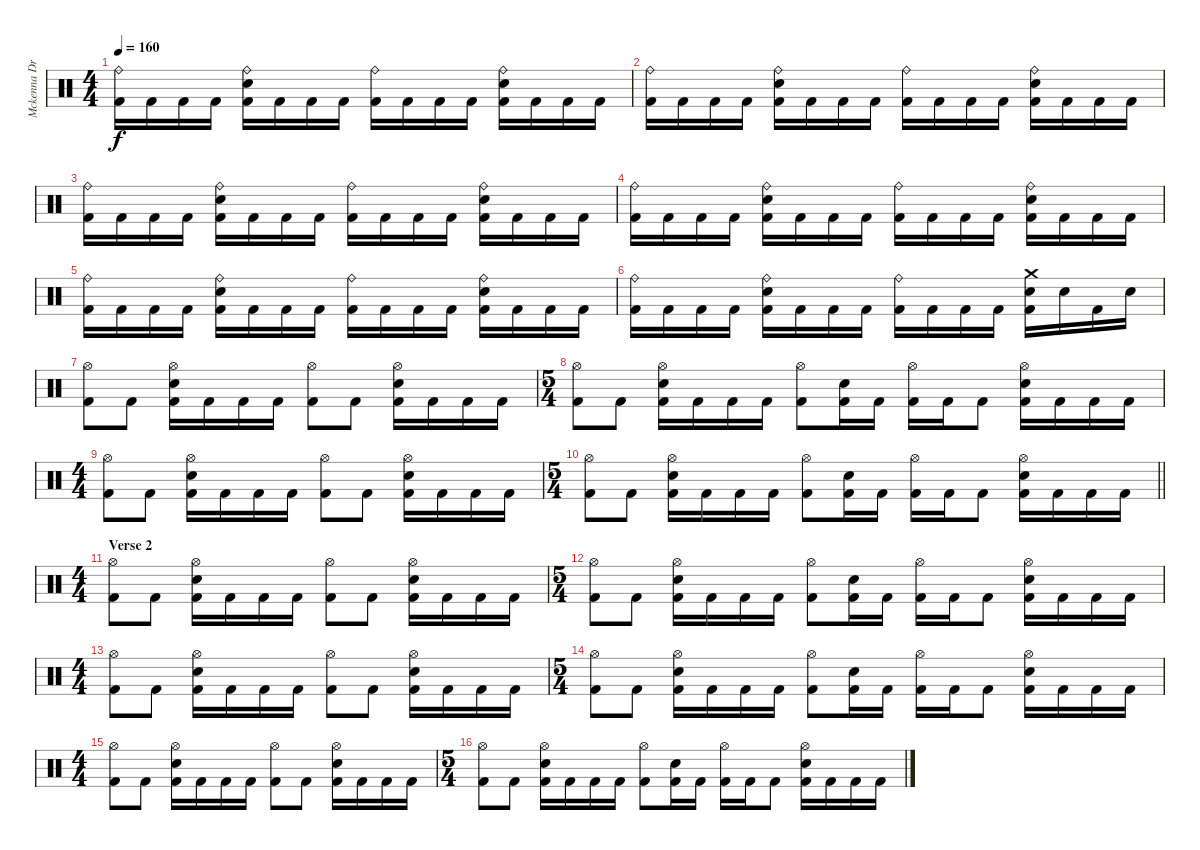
\track ("Mckenna Drums" "Mckenna Dr") {instrument percussion}
\staff {score}
\articulation defaults
\ts (4 4)
\tempo 160
\clef neutral
\ks c
("Ride (bell)" "Kick (hit) 2").16{dy f} "Kick (hit) 2".16 "Kick (hit) 2".16 "Kick (hit) 2".16 ("Ride (bell)" "Electric Snare (hit)" "Kick (hit) 2").16 "Kick (hit) 2".16 "Kick (hit) 2".16 "Kick (hit) 2".16 ("Ride (bell)" "Kick (hit) 2").16 "Kick (hit) 2".16 "Kick (hit) 2".16 "Kick (hit) 2".16 ("Ride (bell)" "Electric Snare (hit)" "Kick (hit) 2").16 "Kick (hit) 2".16 "Kick (hit) 2".16 "Kick (hit) 2".16 |
("Ride (bell)" "Kick (hit) 2").16 "Kick (hit) 2".16 "Kick (hit) 2".16 "Kick (hit) 2".16 ("Ride (bell)" "Electric Snare (hit)" "Kick (hit) 2").16 "Kick (hit) 2".16 "Kick (hit) 2".16 "Kick (hit) 2".16 ("Ride (bell)" "Kick (hit) 2").16 "Kick (hit) 2".16 "Kick (hit) 2".16 "Kick (hit) 2".16 ("Ride (bell)" "Electric Snare (hit)" "Kick (hit) 2").16 "Kick (hit) 2".16 "Kick (hit) 2".16 "Kick (hit) 2".16 |
("Ride (bell)" "Kick (hit) 2").16 "Kick (hit) 2".16 "Kick (hit) 2".16 "Kick (hit) 2".16 ("Ride (bell)" "Electric Snare (hit)" "Kick (hit) 2").16 "Kick (hit) 2".16 "Kick (hit) 2".16 "Kick (hit) 2".16 ("Ride (bell)" "Kick (hit) 2").16 "Kick (hit) 2".16 "Kick (hit) 2".16 "Kick (hit) 2".16 ("Ride (bell)" "Electric Snare (hit)" "Kick (hit) 2").16 "Kick (hit) 2".16 "Kick (hit) 2".16 "Kick (hit) 2".16 |
("Ride (bell)" "Kick (hit) 2").16 "Kick (hit) 2".16 "Kick (hit) 2".16 "Kick (hit) 2".16 ("Ride (bell)" "Electric Snare (hit)" "Kick (hit) 2").16 "Kick (hit) 2".16 "Kick (hit) 2".16 "Kick (hit) 2".16 ("Ride (bell)" "Kick (hit) 2").16 "Kick (hit) 2".16 "Kick (hit) 2".16 "Kick (hit) 2".16 ("Ride (bell)" "Electric Snare (hit)" "Kick (hit) 2").16 "Kick (hit) 2".16 "Kick (hit) 2".16 "Kick (hit) 2".16 |
("Ride (bell)" "Kick (hit) 2").16 "Kick (hit) 2".16 "Kick (hit) 2".16 "Kick (hit) 2".16 ("Ride (bell)" "Electric Snare (hit)" "Kick (hit) 2").16 "Kick (hit) 2".16 "Kick (hit) 2".16 "Kick (hit) 2".16 ("Ride (bell)" "Kick (hit) 2").16 "Kick (hit) 2".16 "Kick (hit) 2".16 "Kick (hit) 2".16 ("Ride (bell)" "Electric Snare (hit)" "Kick (hit) 2").16 "Kick (hit) 2".16 "Kick (hit) 2".16 "Kick (hit) 2".16 |
("Ride (bell)" "Kick (hit) 2").16 "Kick (hit) 2".16 "Kick (hit) 2".16 "Kick (hit) 2".16 ("Ride (bell)" "Electric Snare (hit)" "Kick (hit) 2").16 "Kick (hit) 2".16 "Kick (hit) 2".16 "Kick (hit) 2".16 ("Ride (bell)" "Kick (hit) 2").16 "Kick (hit) 2".16 "Kick (hit) 2".16 "Kick (hit) 2".16 ("Crash medium (hit)" "Electric Snare (hit)" "Kick (hit) 2").16 "Electric Snare (hit)".16 "Kick (hit) 2".16 "Electric Snare (hit)".16 |
("Hi-Hat (open)" "Kick (hit) 2").8 "Kick (hit) 2".8 ("Hi-Hat (open)" "Electric Snare (hit)" "Kick (hit) 2").16 "Kick (hit) 2".16 "Kick (hit) 2".16 "Kick (hit) 2".16 ("Hi-Hat (open)" "Kick (hit) 2").8 "Kick (hit) 2".8 ("Hi-Hat (open)" "Electric Snare (hit)" "Kick (hit) 2").16 "Kick (hit) 2".16 "Kick (hit) 2".16 "Kick (hit) 2".16 |
\ts (5 4)
("Hi-Hat (open)" "Kick (hit) 2").8 "Kick (hit) 2".8 ("Hi-Hat (open)" "Electric Snare (hit)" "Kick (hit) 2").16 "Kick (hit) 2".16 "Kick (hit) 2".16 "Kick (hit) 2".16 ("Hi-Hat (open)" "Kick (hit) 2").8 ("Electric Snare (hit)" "Kick (hit) 2").16 "Kick (hit) 2".16 ("Hi-Hat (open)" "Kick (hit) 2").16 "Kick (hit) 2".16 "Kick (hit) 2".8 ("Hi-Hat (open)" "Electric Snare (hit)" "Kick (hit) 2").16 "Kick (hit) 2".16 "Kick (hit) 2".16 "Kick (hit) 2".16 |
\ts (4 4)
("Hi-Hat (open)" "Kick (hit) 2").8 "Kick (hit) 2".8 ("Hi-Hat (open)" "Electric Snare (hit)" "Kick (hit) 2").16 "Kick (hit) 2".16 "Kick (hit) 2".16 "Kick (hit) 2".16 ("Hi-Hat (open)" "Kick (hit) 2").8 "Kick (hit) 2".8 ("Hi-Hat (open)" "Electric Snare (hit)" "Kick (hit) 2").16 "Kick (hit) 2".16 "Kick (hit) 2".16 "Kick (hit) 2".16 |
\ts (5 4)
\barLineRight lightlight
("Hi-Hat (open)" "Kick (hit) 2").8 "Kick (hit) 2".8 ("Hi-Hat (open)" "Electric Snare (hit)" "Kick (hit) 2").16 "Kick (hit) 2".16 "Kick (hit) 2".16 "Kick (hit) 2".16 ("Hi-Hat (open)" "Kick (hit) 2").8 ("Electric Snare (hit)" "Kick (hit) 2").16 "Kick (hit) 2".16 ("Hi-Hat (open)" "Kick (hit) 2").16 "Kick (hit) 2".16 "Kick (hit) 2".8 ("Hi-Hat (open)" "Electric Snare (hit)" "Kick (hit) 2").16 "Kick (hit) 2".16 "Kick (hit) 2".16 "Kick (hit) 2".16 |
\ts (4 4)
\section ("" "Verse 2")
("Hi-Hat (open)" "Kick (hit) 2").8 "Kick (hit) 2".8 ("Hi-Hat (open)" "Electric Snare (hit)" "Kick (hit) 2").16 "Kick (hit) 2".16 "Kick (hit) 2".16 "Kick (hit) 2".16 ("Hi-Hat (open)" "Kick (hit) 2").8 "Kick (hit) 2".8 ("Hi-Hat (open)" "Electric Snare (hit)" "Kick (hit) 2").16 "Kick (hit) 2".16 "Kick (hit) 2".16 "Kick (hit) 2".16 |
\ts (5 4)
("Hi-Hat (open)" "Kick (hit) 2").8 "Kick (hit) 2".8 ("Hi-Hat (open)" "Electric Snare (hit)" "Kick (hit) 2").16 "Kick (hit) 2".16 "Kick (hit) 2".16 "Kick (hit) 2".16 ("Hi-Hat (open)" "Kick (hit) 2").8 ("Electric Snare (hit)" "Kick (hit) 2").16 "Kick (hit) 2".16 ("Hi-Hat (open)" "Kick (hit) 2").16 "Kick (hit) 2".16 "Kick (hit) 2".8 ("Hi-Hat (open)" "Electric Snare (hit)" "Kick (hit) 2").16 "Kick (hit) 2".16 "Kick (hit) 2".16 "Kick (hit) 2".16 |
\ts (4 4)
("Hi-Hat (open)" "Kick (hit) 2").8 "Kick (hit) 2".8 ("Hi-Hat (open)" "Electric Snare (hit)" "Kick (hit) 2").16 "Kick (hit) 2".16 "Kick (hit) 2".16 "Kick (hit) 2".16 ("Hi-Hat (open)" "Kick (hit) 2").8 "Kick (hit) 2".8 ("Hi-Hat (open)" "Electric Snare (hit)" "Kick (hit) 2").16 "Kick (hit) 2".16 "Kick (hit) 2".16 "Kick (hit) 2".16 |
\ts (5 4)
("Hi-Hat (open)" "Kick (hit) 2").8 "Kick (hit) 2".8 ("Hi-Hat (open)" "Electric Snare (hit)" "Kick (hit) 2").16 "Kick (hit) 2".16 "Kick (hit) 2".16 "Kick (hit) 2".16 ("Hi-Hat (open)" "Kick (hit) 2").8 ("Electric Snare (hit)" "Kick (hit) 2").16 "Kick (hit) 2".16 ("Hi-Hat (open)" "Kick (hit) 2").16 "Kick (hit) 2".16 "Kick (hit) 2".8 ("Hi-Hat (open)" "Electric Snare (hit)" "Kick (hit) 2").16 "Kick (hit) 2".16 "Kick (hit) 2".16 "Kick (hit) 2".16 |
\ts (4 4)
("Hi-Hat (open)" "Kick (hit) 2").8 "Kick (hit) 2".8 ("Hi-Hat (open)" "Electric Snare (hit)" "Kick (hit) 2").16 "Kick (hit) 2".16 "Kick (hit) 2".16 "Kick (hit) 2".16 ("Hi-Hat (open)" "Kick (hit) 2").8 "Kick (hit) 2".8 ("Hi-Hat (open)" "Electric Snare (hit)" "Kick (hit) 2").16 "Kick (hit) 2".16 "Kick (hit) 2".16 "Kick (hit) 2".16 |
\ts (5 4)
("Hi-Hat (open)" "Kick (hit) 2").8 "Kick (hit) 2".8 ("Hi-Hat (open)" "Electric Snare (hit)" "Kick (hit) 2").16 "Kick (hit) 2".16 "Kick (hit) 2".16 "Kick (hit) 2".16 ("Hi-Hat (open)" "Kick (hit) 2").8 ("Electric Snare (hit)" "Kick (hit) 2").16 "Kick (hit) 2".16 ("Hi-Hat (open)" "Kick (hit) 2").16 "Kick (hit) 2".16 "Kick (hit) 2".8 ("Hi-Hat (open)" "Electric Snare (hit)" "Kick (hit) 2").16 "Kick (hit) 2".16 "Kick (hit) 2".16 "Kick (hit) 2".16
